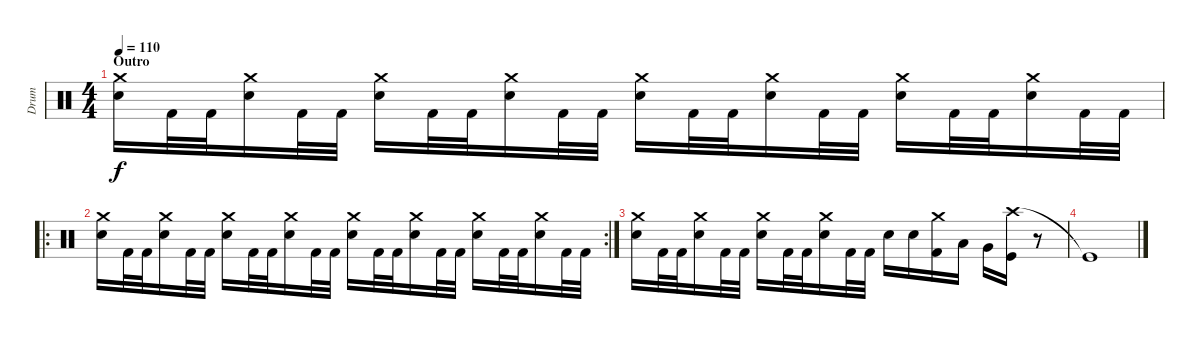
\track ("Drum" "Drum") {instrument percussion}
\staff {score}
\articulation defaults
\ts (4 4)
\section ("" "Outro")
\tempo 110
\clef neutral
\ks c
("Crash medium (hit)" "Snare (hit) 2").16{dy f} "Kick (hit) 2".32 "Kick (hit) 2".32 ("Crash medium (hit)" "Snare (hit) 2").16 "Kick (hit) 2".32 "Kick (hit) 2".32 ("Crash medium (hit)" "Snare (hit) 2").16 "Kick (hit) 2".32 "Kick (hit) 2".32 ("Crash medium (hit)" "Snare (hit) 2").16 "Kick (hit) 2".32 "Kick (hit) 2".32 ("Crash medium (hit)" "Snare (hit) 2").16 "Kick (hit) 2".32 "Kick (hit) 2".32 ("Crash medium (hit)" "Snare (hit) 2").16 "Kick (hit) 2".32 "Kick (hit) 2".32 ("Crash medium (hit)" "Snare (hit) 2").16 "Kick (hit) 2".32 "Kick (hit) 2".32 ("Crash medium (hit)" "Snare (hit) 2").16 "Kick (hit) 2".32 "Kick (hit) 2".32 |
\ro
\rc 2
("Crash medium (hit)" "Snare (hit) 2").16 "Kick (hit) 2".32 "Kick (hit) 2".32 ("Crash medium (hit)" "Snare (hit) 2").16 "Kick (hit) 2".32 "Kick (hit) 2".32 ("Crash medium (hit)" "Snare (hit) 2").16 "Kick (hit) 2".32 "Kick (hit) 2".32 ("Crash medium (hit)" "Snare (hit) 2").16 "Kick (hit) 2".32 "Kick (hit) 2".32 ("Crash medium (hit)" "Snare (hit) 2").16 "Kick (hit) 2".32 "Kick (hit) 2".32 ("Crash medium (hit)" "Snare (hit) 2").16 "Kick (hit) 2".32 "Kick (hit) 2".32 ("Crash medium (hit)" "Snare (hit) 2").16 "Kick (hit) 2".32 "Kick (hit) 2".32 ("Crash medium (hit)" "Snare (hit) 2").16 "Kick (hit) 2".32 "Kick (hit) 2".32 |
("Crash medium (hit)" "Snare (hit) 2").16 "Kick (hit) 2".32 "Kick (hit) 2".32 ("Crash medium (hit)" "Snare (hit) 2").16 "Kick (hit) 2".32 "Kick (hit) 2".32 ("Crash medium (hit)" "Snare (hit) 2").16 "Kick (hit) 2".32 "Kick (hit) 2".32 ("Crash medium (hit)" "Snare (hit) 2").16 "Kick (hit) 2".32 "Kick (hit) 2".32 "Electric Snare (hit)".16 "Snare (hit) 2".16 ("Crash medium (hit)" "Kick (hit) 2").16 "Low Tom (hit)".16 "Very Low Tom (hit)".16 ("Crash high (hit)" "Kick (hit)").16 r.8 |
"Kick (hit)"{t}.1
